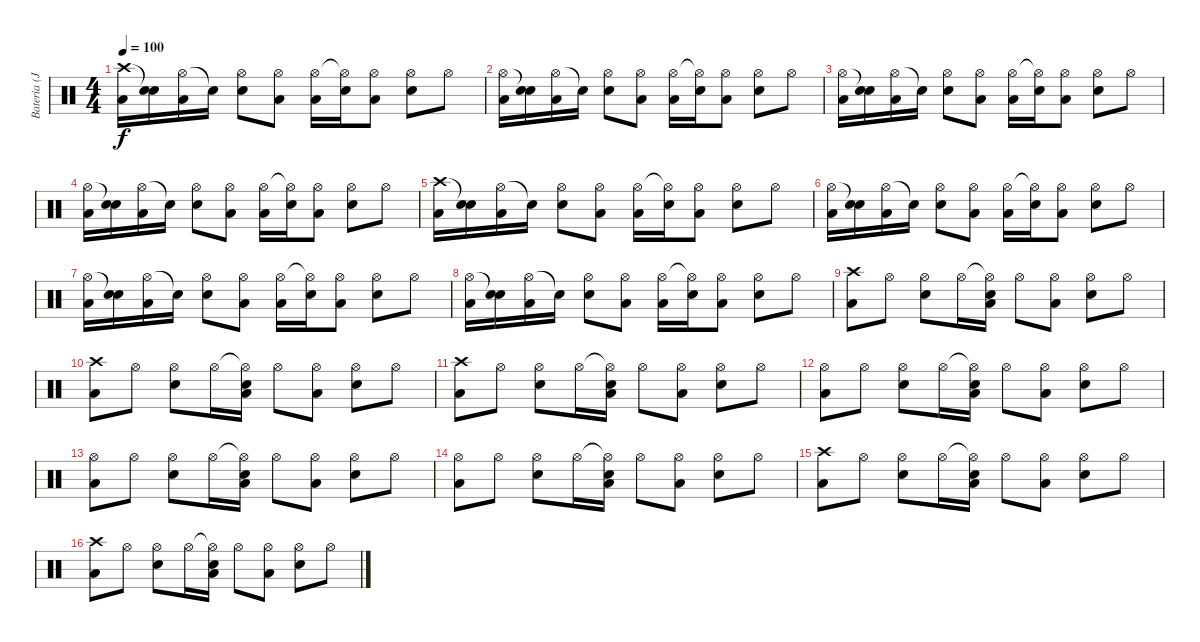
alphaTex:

\track ("Bateria (John)" "Bateria (J") {instrument percussion}
\staff {score}
\articulation defaults
\ts (4 4)
\tempo 100
\clef neutral
\ks c
("Crash high (hit)" "Low Tom (hit)").16{dy f} ("Snare (hit)"{t} "Electric Snare (hit)").16 ("Hi-Hat (open)" "Low Tom (hit)").16 "Snare (hit)"{t}.16 ("Hi-Hat (open)" "Electric Snare (hit)").8 ("Hi-Hat (open)" "Low Tom (hit)").8 ("Hi-Hat (open)" "Low Tom (hit)").16 ("Hi-Hat (open)"{t} "Electric Snare (hit)").16 ("Hi-Hat (open)" "Low Tom (hit)").8 ("Hi-Hat (open)" "Electric Snare (hit)").8 "Hi-Hat (open)".8 |
("Hi-Hat (open)" "Low Tom (hit)").16 ("Snare (hit)"{t} "Electric Snare (hit)").16 ("Hi-Hat (open)" "Low Tom (hit)").16 "Snare (hit)"{t}.16 ("Hi-Hat (open)" "Electric Snare (hit)").8 ("Hi-Hat (open)" "Low Tom (hit)").8 ("Hi-Hat (open)" "Low Tom (hit)").16 ("Hi-Hat (open)"{t} "Electric Snare (hit)").16 ("Hi-Hat (open)" "Low Tom (hit)").8 ("Hi-Hat (open)" "Electric Snare (hit)").8 "Hi-Hat (open)".8 |
("Hi-Hat (open)" "Low Tom (hit)").16 ("Snare (hit)"{t} "Electric Snare (hit)").16 ("Hi-Hat (open)" "Low Tom (hit)").16 "Snare (hit)"{t}.16 ("Hi-Hat (open)" "Electric Snare (hit)").8 ("Hi-Hat (open)" "Low Tom (hit)").8 ("Hi-Hat (open)" "Low Tom (hit)").16 ("Hi-Hat (open)"{t} "Electric Snare (hit)").16 ("Hi-Hat (open)" "Low Tom (hit)").8 ("Hi-Hat (open)" "Electric Snare (hit)").8 "Hi-Hat (open)".8 |
("Hi-Hat (open)" "Low Tom (hit)").16 ("Snare (hit)"{t} "Electric Snare (hit)").16 ("Hi-Hat (open)" "Low Tom (hit)").16 "Snare (hit)"{t}.16 ("Hi-Hat (open)" "Electric Snare (hit)").8 ("Hi-Hat (open)" "Low Tom (hit)").8 ("Hi-Hat (open)" "Low Tom (hit)").16 ("Hi-Hat (open)"{t} "Electric Snare (hit)").16 ("Hi-Hat (open)" "Low Tom (hit)").8 ("Hi-Hat (open)" "Electric Snare (hit)").8 "Hi-Hat (open)".8 |
("Crash high (hit)" "Low Tom (hit)").16 ("Snare (hit)"{t} "Electric Snare (hit)").16 ("Hi-Hat (open)" "Low Tom (hit)").16 "Snare (hit)"{t}.16 ("Hi-Hat (open)" "Electric Snare (hit)").8 ("Hi-Hat (open)" "Low Tom (hit)").8 ("Hi-Hat (open)" "Low Tom (hit)").16 ("Hi-Hat (open)"{t} "Electric Snare (hit)").16 ("Hi-Hat (open)" "Low Tom (hit)").8 ("Hi-Hat (open)" "Electric Snare (hit)").8 "Hi-Hat (open)".8 |
("Hi-Hat (open)" "Low Tom (hit)").16 ("Snare (hit)"{t} "Electric Snare (hit)").16 ("Hi-Hat (open)" "Low Tom (hit)").16 "Snare (hit)"{t}.16 ("Hi-Hat (open)" "Electric Snare (hit)").8 ("Hi-Hat (open)" "Low Tom (hit)").8 ("Hi-Hat (open)" "Low Tom (hit)").16 ("Hi-Hat (open)"{t} "Electric Snare (hit)").16 ("Hi-Hat (open)" "Low Tom (hit)").8 ("Hi-Hat (open)" "Electric Snare (hit)").8 "Hi-Hat (open)".8 |
("Hi-Hat (open)" "Low Tom (hit)").16 ("Snare (hit)"{t} "Electric Snare (hit)").16 ("Hi-Hat (open)" "Low Tom (hit)").16 "Snare (hit)"{t}.16 ("Hi-Hat (open)" "Electric Snare (hit)").8 ("Hi-Hat (open)" "Low Tom (hit)").8 ("Hi-Hat (open)" "Low Tom (hit)").16 ("Hi-Hat (open)"{t} "Electric Snare (hit)").16 ("Hi-Hat (open)" "Low Tom (hit)").8 ("Hi-Hat (open)" "Electric Snare (hit)").8 "Hi-Hat (open)".8 |
("Hi-Hat (open)" "Low Tom (hit)").16 ("Snare (hit)"{t} "Electric Snare (hit)").16 ("Hi-Hat (open)" "Low Tom (hit)").16 "Snare (hit)"{t}.16 ("Hi-Hat (open)" "Electric Snare (hit)").8 ("Hi-Hat (open)" "Low Tom (hit)").8 ("Hi-Hat (open)" "Low Tom (hit)").16 ("Hi-Hat (open)"{t} "Electric Snare (hit)").16 ("Hi-Hat (open)" "Low Tom (hit)").8 ("Hi-Hat (open)" "Electric Snare (hit)").8 "Hi-Hat (open)".8 |
("Crash high (hit)" "Low Tom (hit)").8 "Hi-Hat (open)".8 ("Hi-Hat (open)" "Electric Snare (hit)").8 "Hi-Hat (open)".16 ("Hi-Hat (open)"{t} "Electric Snare (hit)" "Low Tom (hit)").16 "Hi-Hat (open)".8 ("Hi-Hat (open)" "Low Tom (hit)").8 ("Hi-Hat (open)" "Electric Snare (hit)").8 "Hi-Hat (open)".8 |
("Crash high (hit)" "Low Tom (hit)").8 "Hi-Hat (open)".8 ("Hi-Hat (open)" "Electric Snare (hit)").8 "Hi-Hat (open)".16 ("Hi-Hat (open)"{t} "Electric Snare (hit)" "Low Tom (hit)").16 "Hi-Hat (open)".8 ("Hi-Hat (open)" "Low Tom (hit)").8 ("Hi-Hat (open)" "Electric Snare (hit)").8 "Hi-Hat (open)".8 |
("Crash high (hit)" "Low Tom (hit)").8 "Hi-Hat (open)".8 ("Hi-Hat (open)" "Electric Snare (hit)").8 "Hi-Hat (open)".16 ("Hi-Hat (open)"{t} "Electric Snare (hit)" "Low Tom (hit)").16 "Hi-Hat (open)".8 ("Hi-Hat (open)" "Low Tom (hit)").8 ("Hi-Hat (open)" "Electric Snare (hit)").8 "Hi-Hat (open)".8 |
("Hi-Hat (open)" "Low Tom (hit)").8 "Hi-Hat (open)".8 ("Hi-Hat (open)" "Electric Snare (hit)").8 "Hi-Hat (open)".16 ("Hi-Hat (open)"{t} "Electric Snare (hit)" "Low Tom (hit)").16 "Hi-Hat (open)".8 ("Hi-Hat (open)" "Low Tom (hit)").8 ("Hi-Hat (open)" "Electric Snare (hit)").8 "Hi-Hat (open)".8 |
("Hi-Hat (open)" "Low Tom (hit)").8 "Hi-Hat (open)".8 ("Hi-Hat (open)" "Electric Snare (hit)").8 "Hi-Hat (open)".16 ("Hi-Hat (open)"{t} "Electric Snare (hit)" "Low Tom (hit)").16 "Hi-Hat (open)".8 ("Hi-Hat (open)" "Low Tom (hit)").8 ("Hi-Hat (open)" "Electric Snare (hit)").8 "Hi-Hat (open)".8 |
("Hi-Hat (open)" "Low Tom (hit)").8 "Hi-Hat (open)".8 ("Hi-Hat (open)" "Electric Snare (hit)").8 "Hi-Hat (open)".16 ("Hi-Hat (open)"{t} "Electric Snare (hit)" "Low Tom (hit)").16 "Hi-Hat (open)".8 ("Hi-Hat (open)" "Low Tom (hit)").8 ("Hi-Hat (open)" "Electric Snare (hit)").8 "Hi-Hat (open)".8 |
("Crash high (hit)" "Low Tom (hit)").8 "Hi-Hat (open)".8 ("Hi-Hat (open)" "Electric Snare (hit)").8 "Hi-Hat (open)".16 ("Hi-Hat (open)"{t} "Electric Snare (hit)" "Low Tom (hit)").16 "Hi-Hat (open)".8 ("Hi-Hat (open)" "Low Tom (hit)").8 ("Hi-Hat (open)" "Electric Snare (hit)").8 "Hi-Hat (open)".8 |
("Crash high (hit)" "Low Tom (hit)").8 "Hi-Hat (open)".8 ("Hi-Hat (open)" "Electric Snare (hit)").8 "Hi-Hat (open)".16 ("Hi-Hat (open)"{t} "Electric Snare (hit)" "Low Tom (hit)").16 "Hi-Hat (open)".8 ("Hi-Hat (open)" "Low Tom (hit)").8 ("Hi-Hat (open)" "Electric Snare (hit)").8 "Hi-Hat (open)".8
